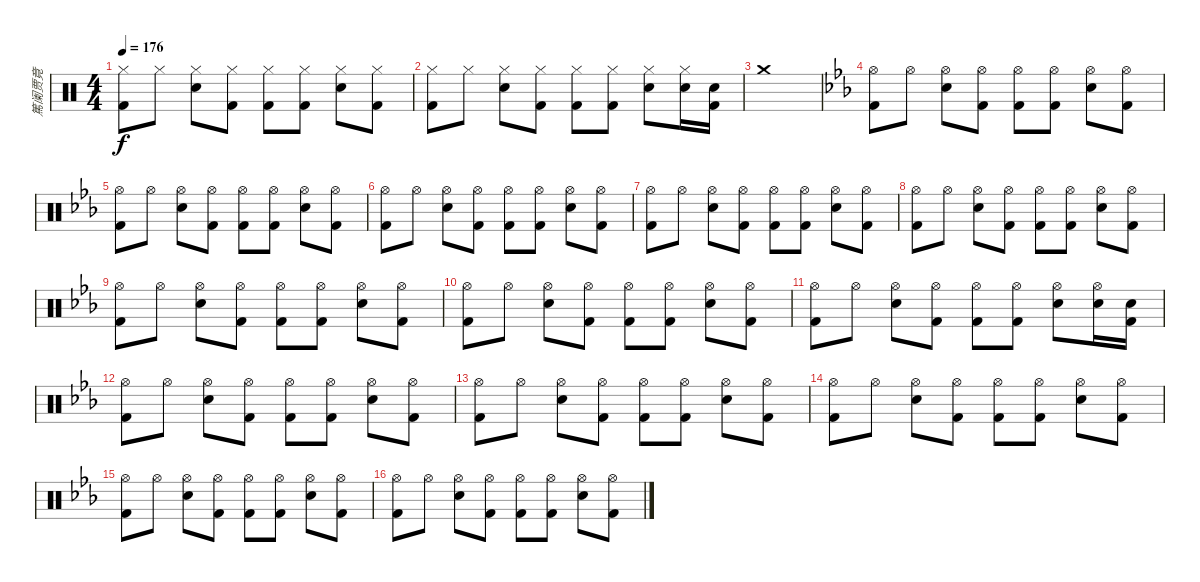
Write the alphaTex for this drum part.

\track ("篤阑贾竟" "篤阑贾竟") {instrument percussion}
\staff {score}
\articulation defaults
\ts (4 4)
\tempo 176
\clef neutral
\ks c
("Hi-Hat (closed)" "Kick (hit) 2").8{dy f} "Hi-Hat (closed)".8 ("Hi-Hat (closed)" "Snare (hit) 2").8 ("Hi-Hat (closed)" "Kick (hit) 2").8 ("Hi-Hat (closed)" "Kick (hit) 2").8 ("Hi-Hat (closed)" "Kick (hit) 2").8 ("Hi-Hat (closed)" "Snare (hit) 2").8 ("Hi-Hat (closed)" "Kick (hit) 2").8 |
("Hi-Hat (closed)" "Kick (hit) 2").8 "Hi-Hat (closed)".8 ("Hi-Hat (closed)" "Snare (hit) 2").8 ("Hi-Hat (closed)" "Kick (hit) 2").8 ("Hi-Hat (closed)" "Kick (hit) 2").8 ("Hi-Hat (closed)" "Kick (hit) 2").8 ("Hi-Hat (closed)" "Snare (hit) 2").8 ("Hi-Hat (closed)" "Snare (hit) 2").16 ("Snare (hit) 2" "Kick (hit) 2").16 |
"Crash medium (hit)".1 |
\ks eb
("Hi-Hat (open)" "Kick (hit) 2").8 "Hi-Hat (open)".8 ("Hi-Hat (open)" "Snare (hit) 2").8 ("Hi-Hat (open)" "Kick (hit) 2").8 ("Hi-Hat (open)" "Kick (hit) 2").8 ("Hi-Hat (open)" "Kick (hit) 2").8 ("Hi-Hat (open)" "Snare (hit) 2").8 ("Hi-Hat (open)" "Kick (hit) 2").8 |
("Hi-Hat (open)" "Kick (hit) 2").8 "Hi-Hat (open)".8 ("Hi-Hat (open)" "Snare (hit) 2").8 ("Hi-Hat (open)" "Kick (hit) 2").8 ("Hi-Hat (open)" "Kick (hit) 2").8 ("Hi-Hat (open)" "Kick (hit) 2").8 ("Hi-Hat (open)" "Snare (hit) 2").8 ("Hi-Hat (open)" "Kick (hit) 2").8 |
("Hi-Hat (open)" "Kick (hit) 2").8 "Hi-Hat (open)".8 ("Hi-Hat (open)" "Snare (hit) 2").8 ("Hi-Hat (open)" "Kick (hit) 2").8 ("Hi-Hat (open)" "Kick (hit) 2").8 ("Hi-Hat (open)" "Kick (hit) 2").8 ("Hi-Hat (open)" "Snare (hit) 2").8 ("Hi-Hat (open)" "Kick (hit) 2").8 |
("Hi-Hat (open)" "Kick (hit) 2").8 "Hi-Hat (open)".8 ("Hi-Hat (open)" "Snare (hit) 2").8 ("Hi-Hat (open)" "Kick (hit) 2").8 ("Hi-Hat (open)" "Kick (hit) 2").8 ("Hi-Hat (open)" "Kick (hit) 2").8 ("Hi-Hat (open)" "Snare (hit) 2").8 ("Hi-Hat (open)" "Kick (hit) 2").8 |
("Hi-Hat (open)" "Kick (hit) 2").8 "Hi-Hat (open)".8 ("Hi-Hat (open)" "Snare (hit) 2").8 ("Hi-Hat (open)" "Kick (hit) 2").8 ("Hi-Hat (open)" "Kick (hit) 2").8 ("Hi-Hat (open)" "Kick (hit) 2").8 ("Hi-Hat (open)" "Snare (hit) 2").8 ("Hi-Hat (open)" "Kick (hit) 2").8 |
("Hi-Hat (open)" "Kick (hit) 2").8 "Hi-Hat (open)".8 ("Hi-Hat (open)" "Snare (hit) 2").8 ("Hi-Hat (open)" "Kick (hit) 2").8 ("Hi-Hat (open)" "Kick (hit) 2").8 ("Hi-Hat (open)" "Kick (hit) 2").8 ("Hi-Hat (open)" "Snare (hit) 2").8 ("Hi-Hat (open)" "Kick (hit) 2").8 |
("Hi-Hat (open)" "Kick (hit) 2").8 "Hi-Hat (open)".8 ("Hi-Hat (open)" "Snare (hit) 2").8 ("Hi-Hat (open)" "Kick (hit) 2").8 ("Hi-Hat (open)" "Kick (hit) 2").8 ("Hi-Hat (open)" "Kick (hit) 2").8 ("Hi-Hat (open)" "Snare (hit) 2").8 ("Hi-Hat (open)" "Kick (hit) 2").8 |
("Hi-Hat (open)" "Kick (hit) 2").8 "Hi-Hat (open)".8 ("Hi-Hat (open)" "Snare (hit) 2").8 ("Hi-Hat (open)" "Kick (hit) 2").8 ("Hi-Hat (open)" "Kick (hit) 2").8 ("Hi-Hat (open)" "Kick (hit) 2").8 ("Hi-Hat (open)" "Snare (hit) 2").8 ("Hi-Hat (open)" "Snare (hit) 2").16 ("Snare (hit) 2" "Kick (hit) 2").16 |
("Hi-Hat (open)" "Kick (hit) 2").8 "Hi-Hat (open)".8 ("Hi-Hat (open)" "Snare (hit) 2").8 ("Hi-Hat (open)" "Kick (hit) 2").8 ("Hi-Hat (open)" "Kick (hit) 2").8 ("Hi-Hat (open)" "Kick (hit) 2").8 ("Hi-Hat (open)" "Snare (hit) 2").8 ("Hi-Hat (open)" "Kick (hit) 2").8 |
("Hi-Hat (open)" "Kick (hit) 2").8 "Hi-Hat (open)".8 ("Hi-Hat (open)" "Snare (hit) 2").8 ("Hi-Hat (open)" "Kick (hit) 2").8 ("Hi-Hat (open)" "Kick (hit) 2").8 ("Hi-Hat (open)" "Kick (hit) 2").8 ("Hi-Hat (open)" "Snare (hit) 2").8 ("Hi-Hat (open)" "Kick (hit) 2").8 |
("Hi-Hat (open)" "Kick (hit) 2").8 "Hi-Hat (open)".8 ("Hi-Hat (open)" "Snare (hit) 2").8 ("Hi-Hat (open)" "Kick (hit) 2").8 ("Hi-Hat (open)" "Kick (hit) 2").8 ("Hi-Hat (open)" "Kick (hit) 2").8 ("Hi-Hat (open)" "Snare (hit) 2").8 ("Hi-Hat (open)" "Kick (hit) 2").8 |
("Hi-Hat (open)" "Kick (hit) 2").8 "Hi-Hat (open)".8 ("Hi-Hat (open)" "Snare (hit) 2").8 ("Hi-Hat (open)" "Kick (hit) 2").8 ("Hi-Hat (open)" "Kick (hit) 2").8 ("Hi-Hat (open)" "Kick (hit) 2").8 ("Hi-Hat (open)" "Snare (hit) 2").8 ("Hi-Hat (open)" "Kick (hit) 2").8 |
("Hi-Hat (open)" "Kick (hit) 2").8 "Hi-Hat (open)".8 ("Hi-Hat (open)" "Snare (hit) 2").8 ("Hi-Hat (open)" "Kick (hit) 2").8 ("Hi-Hat (open)" "Kick (hit) 2").8 ("Hi-Hat (open)" "Kick (hit) 2").8 ("Hi-Hat (open)" "Snare (hit) 2").8 ("Hi-Hat (open)" "Kick (hit) 2").8
